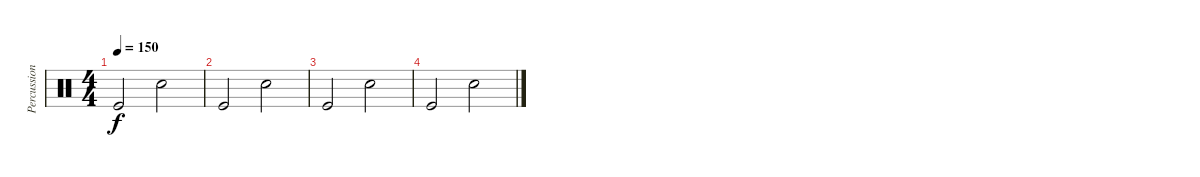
\track ("Percussions" "Percussion") {instrument percussion}
\staff {score}
\articulation defaults
\ts (4 4)
\tempo 150
\clef neutral
\ks c "Kick (hit)".2{dy f} "Electric Snare (hit)".2
|
"Kick (hit)".2 "Electric Snare (hit)".2 |
"Kick (hit)".2 "Electric Snare (hit)".2 |
"Kick (hit)".2 "Electric Snare (hit)".2
